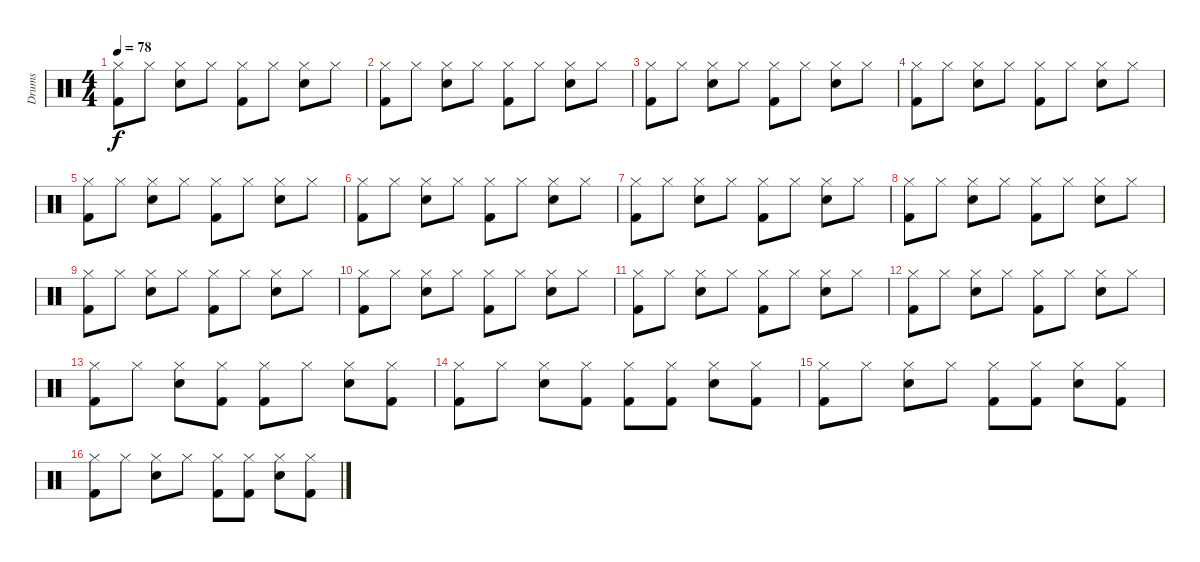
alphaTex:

\track ("Drums" "Drums") {instrument percussion}
\staff {score}
\articulation defaults
\ts (4 4)
\tempo 78
\clef neutral
\ks c
("Hi-Hat (closed)" "Kick (hit) 2").8{dy f} "Hi-Hat (closed)".8 ("Hi-Hat (closed)" "Electric Snare (hit)").8 "Hi-Hat (closed)".8 ("Hi-Hat (closed)" "Kick (hit) 2").8 "Hi-Hat (closed)".8 ("Hi-Hat (closed)" "Electric Snare (hit)").8 "Hi-Hat (closed)".8 |
("Hi-Hat (closed)" "Kick (hit) 2").8 "Hi-Hat (closed)".8 ("Hi-Hat (closed)" "Electric Snare (hit)").8 "Hi-Hat (closed)".8 ("Hi-Hat (closed)" "Kick (hit) 2").8 "Hi-Hat (closed)".8 ("Hi-Hat (closed)" "Electric Snare (hit)").8 "Hi-Hat (closed)".8 |
("Hi-Hat (closed)" "Kick (hit) 2").8 "Hi-Hat (closed)".8 ("Hi-Hat (closed)" "Electric Snare (hit)").8 "Hi-Hat (closed)".8 ("Hi-Hat (closed)" "Kick (hit) 2").8 "Hi-Hat (closed)".8 ("Hi-Hat (closed)" "Electric Snare (hit)").8 "Hi-Hat (closed)".8 |
("Hi-Hat (closed)" "Kick (hit) 2").8 "Hi-Hat (closed)".8 ("Hi-Hat (closed)" "Electric Snare (hit)").8 "Hi-Hat (closed)".8 ("Hi-Hat (closed)" "Kick (hit) 2").8 "Hi-Hat (closed)".8 ("Hi-Hat (closed)" "Electric Snare (hit)").8 "Hi-Hat (closed)".8 |
("Hi-Hat (closed)" "Kick (hit) 2").8 "Hi-Hat (closed)".8 ("Hi-Hat (closed)" "Electric Snare (hit)").8 "Hi-Hat (closed)".8 ("Hi-Hat (closed)" "Kick (hit) 2").8 "Hi-Hat (closed)".8 ("Hi-Hat (closed)" "Electric Snare (hit)").8 "Hi-Hat (closed)".8 |
("Hi-Hat (closed)" "Kick (hit) 2").8 "Hi-Hat (closed)".8 ("Hi-Hat (closed)" "Electric Snare (hit)").8 "Hi-Hat (closed)".8 ("Hi-Hat (closed)" "Kick (hit) 2").8 "Hi-Hat (closed)".8 ("Hi-Hat (closed)" "Electric Snare (hit)").8 "Hi-Hat (closed)".8 |
("Hi-Hat (closed)" "Kick (hit) 2").8 "Hi-Hat (closed)".8 ("Hi-Hat (closed)" "Electric Snare (hit)").8 "Hi-Hat (closed)".8 ("Hi-Hat (closed)" "Kick (hit) 2").8 "Hi-Hat (closed)".8 ("Hi-Hat (closed)" "Electric Snare (hit)").8 "Hi-Hat (closed)".8 |
("Hi-Hat (closed)" "Kick (hit) 2").8 "Hi-Hat (closed)".8 ("Hi-Hat (closed)" "Electric Snare (hit)").8 "Hi-Hat (closed)".8 ("Hi-Hat (closed)" "Kick (hit) 2").8 "Hi-Hat (closed)".8 ("Hi-Hat (closed)" "Electric Snare (hit)").8 "Hi-Hat (closed)".8 |
("Hi-Hat (closed)" "Kick (hit) 2").8 "Hi-Hat (closed)".8 ("Hi-Hat (closed)" "Electric Snare (hit)").8 "Hi-Hat (closed)".8 ("Hi-Hat (closed)" "Kick (hit) 2").8 "Hi-Hat (closed)".8 ("Hi-Hat (closed)" "Electric Snare (hit)").8 "Hi-Hat (closed)".8 |
("Hi-Hat (closed)" "Kick (hit) 2").8 "Hi-Hat (closed)".8 ("Hi-Hat (closed)" "Electric Snare (hit)").8 "Hi-Hat (closed)".8 ("Hi-Hat (closed)" "Kick (hit) 2").8 "Hi-Hat (closed)".8 ("Hi-Hat (closed)" "Electric Snare (hit)").8 "Hi-Hat (closed)".8 |
("Hi-Hat (closed)" "Kick (hit) 2").8 "Hi-Hat (closed)".8 ("Hi-Hat (closed)" "Electric Snare (hit)").8 "Hi-Hat (closed)".8 ("Hi-Hat (closed)" "Kick (hit) 2").8 "Hi-Hat (closed)".8 ("Hi-Hat (closed)" "Electric Snare (hit)").8 "Hi-Hat (closed)".8 |
("Hi-Hat (closed)" "Kick (hit) 2").8 "Hi-Hat (closed)".8 ("Hi-Hat (closed)" "Electric Snare (hit)").8 "Hi-Hat (closed)".8 ("Hi-Hat (closed)" "Kick (hit) 2").8 "Hi-Hat (closed)".8 ("Hi-Hat (closed)" "Electric Snare (hit)").8 "Hi-Hat (closed)".8 |
("Hi-Hat (closed)" "Kick (hit) 2").8 "Hi-Hat (closed)".8 ("Hi-Hat (closed)" "Electric Snare (hit)").8 ("Hi-Hat (closed)" "Kick (hit) 2").8 ("Hi-Hat (closed)" "Kick (hit) 2").8 "Hi-Hat (closed)".8 ("Hi-Hat (closed)" "Electric Snare (hit)").8 ("Hi-Hat (closed)" "Kick (hit) 2").8 |
("Hi-Hat (closed)" "Kick (hit) 2").8 "Hi-Hat (closed)".8 ("Hi-Hat (closed)" "Electric Snare (hit)").8 ("Hi-Hat (closed)" "Kick (hit) 2").8 ("Hi-Hat (closed)" "Kick (hit) 2").8 ("Hi-Hat (closed)" "Kick (hit) 2").8 ("Hi-Hat (closed)" "Electric Snare (hit)").8 ("Hi-Hat (closed)" "Kick (hit) 2").8 |
("Hi-Hat (closed)" "Kick (hit) 2").8 "Hi-Hat (closed)".8 ("Hi-Hat (closed)" "Electric Snare (hit)").8 "Hi-Hat (closed)".8 ("Hi-Hat (closed)" "Kick (hit) 2").8 ("Hi-Hat (closed)" "Kick (hit) 2").8 ("Hi-Hat (closed)" "Electric Snare (hit)").8 ("Hi-Hat (closed)" "Kick (hit) 2").8 |
("Hi-Hat (closed)" "Kick (hit) 2").8 "Hi-Hat (closed)".8 ("Hi-Hat (closed)" "Electric Snare (hit)").8 "Hi-Hat (closed)".8 ("Hi-Hat (closed)" "Kick (hit) 2").8 ("Hi-Hat (closed)" "Kick (hit) 2").8 ("Hi-Hat (closed)" "Electric Snare (hit)").8 ("Hi-Hat (closed)" "Kick (hit) 2").8
